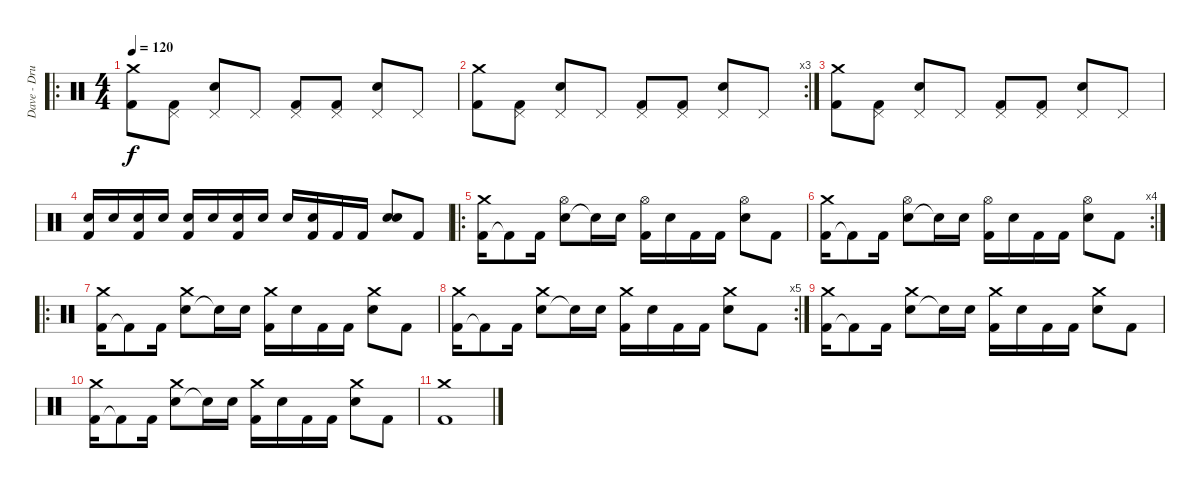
\track ("Dave - Drums" "Dave - Dru") {instrument percussion}
\staff {score}
\articulation defaults
\ro
\ts (4 4)
\tempo 120
\clef neutral
\ks c
("Kick (hit) 2" "Crash medium (hit)").8{dy f} ("Kick (hit) 2" "Pedal Hi-Hat (hit)").8 ("Snare (hit) 2" "Pedal Hi-Hat (hit)").8 "Pedal Hi-Hat (hit)".8 ("Kick (hit) 2" "Pedal Hi-Hat (hit)").8 ("Kick (hit) 2" "Pedal Hi-Hat (hit)").8 ("Snare (hit) 2" "Pedal Hi-Hat (hit)").8 "Pedal Hi-Hat (hit)".8 |
\rc 3
("Kick (hit) 2" "Crash medium (hit)").8 ("Kick (hit) 2" "Pedal Hi-Hat (hit)").8 ("Snare (hit) 2" "Pedal Hi-Hat (hit)").8 "Pedal Hi-Hat (hit)".8 ("Kick (hit) 2" "Pedal Hi-Hat (hit)").8 ("Kick (hit) 2" "Pedal Hi-Hat (hit)").8 ("Snare (hit) 2" "Pedal Hi-Hat (hit)").8 "Pedal Hi-Hat (hit)".8 |
("Kick (hit) 2" "Crash medium (hit)").8 ("Kick (hit) 2" "Pedal Hi-Hat (hit)").8 ("Snare (hit) 2" "Pedal Hi-Hat (hit)").8 "Pedal Hi-Hat (hit)".8 ("Kick (hit) 2" "Pedal Hi-Hat (hit)").8 ("Kick (hit) 2" "Pedal Hi-Hat (hit)").8 ("Snare (hit) 2" "Pedal Hi-Hat (hit)").8 "Pedal Hi-Hat (hit)".8 |
("Snare (hit) 2" "Kick (hit) 2").16 "Snare (hit) 2".16 ("Snare (hit) 2" "Kick (hit) 2").16 "Snare (hit) 2".16 ("Snare (hit) 2" "Kick (hit) 2").16 "Snare (hit) 2".16 ("Snare (hit) 2" "Kick (hit) 2").16 "Snare (hit) 2".16 "Snare (hit) 2".16 ("Snare (hit) 2" "Kick (hit) 2").16 "Kick (hit) 2".16 "Kick (hit) 2".16 ("Snare (hit) 2" "Electric Snare (hit)").8 "Kick (hit) 2".8 |
\ro
("Kick (hit) 2" "Crash medium (hit)").16 "Kick (hit) 2"{t}.8 "Kick (hit) 2".16 ("Snare (hit) 2" "Hi-Hat (open)").8 "Snare (hit)"{t}.16 "Snare (hit) 2".16 ("Kick (hit) 2" "Hi-Hat (open)").16 "Snare (hit) 2".16 "Kick (hit) 2".16 "Kick (hit) 2".16 ("Snare (hit) 2" "Hi-Hat (open)").8 "Kick (hit) 2".8 |
\rc 4
("Kick (hit) 2" "Crash medium (hit)").16 "Kick (hit) 2"{t}.8 "Kick (hit) 2".16 ("Snare (hit) 2" "Hi-Hat (open)").8 "Snare (hit)"{t}.16 "Snare (hit) 2".16 ("Kick (hit) 2" "Hi-Hat (open)").16 "Snare (hit) 2".16 "Kick (hit) 2".16 "Kick (hit) 2".16 ("Snare (hit) 2" "Hi-Hat (open)").8 "Kick (hit) 2".8 |
\ro
("Kick (hit) 2" "Crash medium (hit)").16 "Kick (hit) 2"{t}.8 "Kick (hit) 2".16 ("Snare (hit) 2" "Crash medium (hit)").8 "Snare (hit)"{t}.16 "Snare (hit) 2".16 ("Kick (hit) 2" "Crash medium (hit)").16 "Snare (hit) 2".16 "Kick (hit) 2".16 "Kick (hit) 2".16 ("Snare (hit) 2" "Crash medium (hit)").8 "Kick (hit) 2".8 |
\rc 5
("Kick (hit) 2" "Crash medium (hit)").16 "Kick (hit) 2"{t}.8 "Kick (hit) 2".16 ("Snare (hit) 2" "Crash medium (hit)").8 "Snare (hit)"{t}.16 "Snare (hit) 2".16 ("Kick (hit) 2" "Crash medium (hit)").16 "Snare (hit) 2".16 "Kick (hit) 2".16 "Kick (hit) 2".16 ("Snare (hit) 2" "Crash medium (hit)").8 "Kick (hit) 2".8 |
("Kick (hit) 2" "Crash medium (hit)").16 "Kick (hit) 2"{t}.8 "Kick (hit) 2".16 ("Snare (hit) 2" "Crash medium (hit)").8 "Snare (hit)"{t}.16 "Snare (hit) 2".16 ("Kick (hit) 2" "Crash medium (hit)").16 "Snare (hit) 2".16 "Kick (hit) 2".16 "Kick (hit) 2".16 ("Snare (hit) 2" "Crash medium (hit)").8 "Kick (hit) 2".8 |
("Kick (hit) 2" "Crash medium (hit)").16 "Kick (hit) 2"{t}.8 "Kick (hit) 2".16 ("Snare (hit) 2" "Crash medium (hit)").8 "Snare (hit)"{t}.16 "Snare (hit) 2".16 ("Kick (hit) 2" "Crash medium (hit)").16 "Snare (hit) 2".16 "Kick (hit) 2".16 "Kick (hit) 2".16 ("Snare (hit) 2" "Crash medium (hit)").8 "Kick (hit) 2".8 |
("Kick (hit) 2" "Crash medium (hit)").1
